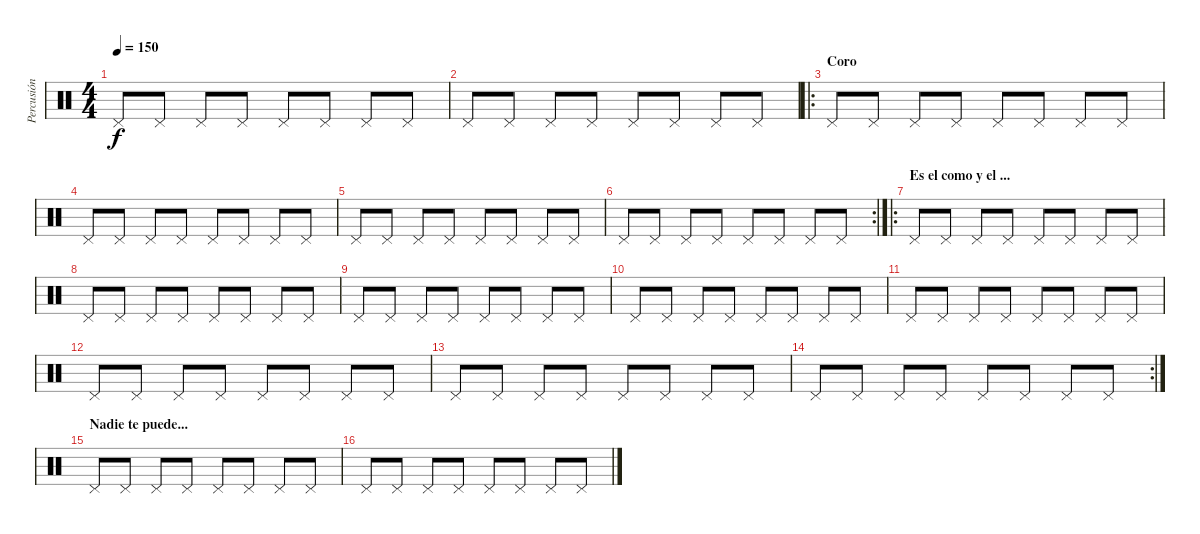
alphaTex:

\track ("Percusión" "Percusión") {instrument percussion}
\staff {score}
\articulation defaults
\ts (4 4)
\tempo 150
\clef neutral
\ks c "Pedal Hi-Hat (hit)".8{dy f} "Pedal Hi-Hat (hit)".8 "Pedal Hi-Hat (hit)".8 "Pedal Hi-Hat (hit)".8 "Pedal Hi-Hat (hit)".8 "Pedal Hi-Hat (hit)".8 "Pedal Hi-Hat (hit)".8 "Pedal Hi-Hat (hit)".8
|
"Pedal Hi-Hat (hit)".8 "Pedal Hi-Hat (hit)".8 "Pedal Hi-Hat (hit)".8 "Pedal Hi-Hat (hit)".8 "Pedal Hi-Hat (hit)".8 "Pedal Hi-Hat (hit)".8 "Pedal Hi-Hat (hit)".8 "Pedal Hi-Hat (hit)".8 |
\ro
\section ("" "Coro")
"Pedal Hi-Hat (hit)".8 "Pedal Hi-Hat (hit)".8 "Pedal Hi-Hat (hit)".8 "Pedal Hi-Hat (hit)".8 "Pedal Hi-Hat (hit)".8 "Pedal Hi-Hat (hit)".8 "Pedal Hi-Hat (hit)".8 "Pedal Hi-Hat (hit)".8 |
"Pedal Hi-Hat (hit)".8 "Pedal Hi-Hat (hit)".8 "Pedal Hi-Hat (hit)".8 "Pedal Hi-Hat (hit)".8 "Pedal Hi-Hat (hit)".8 "Pedal Hi-Hat (hit)".8 "Pedal Hi-Hat (hit)".8 "Pedal Hi-Hat (hit)".8 |
"Pedal Hi-Hat (hit)".8 "Pedal Hi-Hat (hit)".8 "Pedal Hi-Hat (hit)".8 "Pedal Hi-Hat (hit)".8 "Pedal Hi-Hat (hit)".8 "Pedal Hi-Hat (hit)".8 "Pedal Hi-Hat (hit)".8 "Pedal Hi-Hat (hit)".8 |
\rc 2 "Pedal Hi-Hat (hit)".8 "Pedal Hi-Hat (hit)".8 "Pedal Hi-Hat (hit)".8 "Pedal Hi-Hat (hit)".8 "Pedal Hi-Hat (hit)".8 "Pedal Hi-Hat (hit)".8 "Pedal Hi-Hat (hit)".8 "Pedal Hi-Hat (hit)".8
|
\ro
\section ("" "Es el como y el ...")
"Pedal Hi-Hat (hit)".8 "Pedal Hi-Hat (hit)".8 "Pedal Hi-Hat (hit)".8 "Pedal Hi-Hat (hit)".8 "Pedal Hi-Hat (hit)".8 "Pedal Hi-Hat (hit)".8 "Pedal Hi-Hat (hit)".8 "Pedal Hi-Hat (hit)".8 |
"Pedal Hi-Hat (hit)".8 "Pedal Hi-Hat (hit)".8 "Pedal Hi-Hat (hit)".8 "Pedal Hi-Hat (hit)".8 "Pedal Hi-Hat (hit)".8 "Pedal Hi-Hat (hit)".8 "Pedal Hi-Hat (hit)".8 "Pedal Hi-Hat (hit)".8 |
"Pedal Hi-Hat (hit)".8 "Pedal Hi-Hat (hit)".8 "Pedal Hi-Hat (hit)".8 "Pedal Hi-Hat (hit)".8 "Pedal Hi-Hat (hit)".8 "Pedal Hi-Hat (hit)".8 "Pedal Hi-Hat (hit)".8 "Pedal Hi-Hat (hit)".8 |
"Pedal Hi-Hat (hit)".8 "Pedal Hi-Hat (hit)".8 "Pedal Hi-Hat (hit)".8 "Pedal Hi-Hat (hit)".8 "Pedal Hi-Hat (hit)".8 "Pedal Hi-Hat (hit)".8 "Pedal Hi-Hat (hit)".8 "Pedal Hi-Hat (hit)".8 |
"Pedal Hi-Hat (hit)".8 "Pedal Hi-Hat (hit)".8 "Pedal Hi-Hat (hit)".8 "Pedal Hi-Hat (hit)".8 "Pedal Hi-Hat (hit)".8 "Pedal Hi-Hat (hit)".8 "Pedal Hi-Hat (hit)".8 "Pedal Hi-Hat (hit)".8 |
"Pedal Hi-Hat (hit)".8 "Pedal Hi-Hat (hit)".8 "Pedal Hi-Hat (hit)".8 "Pedal Hi-Hat (hit)".8 "Pedal Hi-Hat (hit)".8 "Pedal Hi-Hat (hit)".8 "Pedal Hi-Hat (hit)".8 "Pedal Hi-Hat (hit)".8 |
"Pedal Hi-Hat (hit)".8 "Pedal Hi-Hat (hit)".8 "Pedal Hi-Hat (hit)".8 "Pedal Hi-Hat (hit)".8 "Pedal Hi-Hat (hit)".8 "Pedal Hi-Hat (hit)".8 "Pedal Hi-Hat (hit)".8 "Pedal Hi-Hat (hit)".8 |
\rc 2 "Pedal Hi-Hat (hit)".8 "Pedal Hi-Hat (hit)".8 "Pedal Hi-Hat (hit)".8 "Pedal Hi-Hat (hit)".8 "Pedal Hi-Hat (hit)".8 "Pedal Hi-Hat (hit)".8 "Pedal Hi-Hat (hit)".8 "Pedal Hi-Hat (hit)".8
|
\section ("" "Nadie te puede...")
"Pedal Hi-Hat (hit)".8 "Pedal Hi-Hat (hit)".8 "Pedal Hi-Hat (hit)".8 "Pedal Hi-Hat (hit)".8 "Pedal Hi-Hat (hit)".8 "Pedal Hi-Hat (hit)".8 "Pedal Hi-Hat (hit)".8 "Pedal Hi-Hat (hit)".8 |
"Pedal Hi-Hat (hit)".8 "Pedal Hi-Hat (hit)".8 "Pedal Hi-Hat (hit)".8 "Pedal Hi-Hat (hit)".8 "Pedal Hi-Hat (hit)".8 "Pedal Hi-Hat (hit)".8 "Pedal Hi-Hat (hit)".8 "Pedal Hi-Hat (hit)".8
